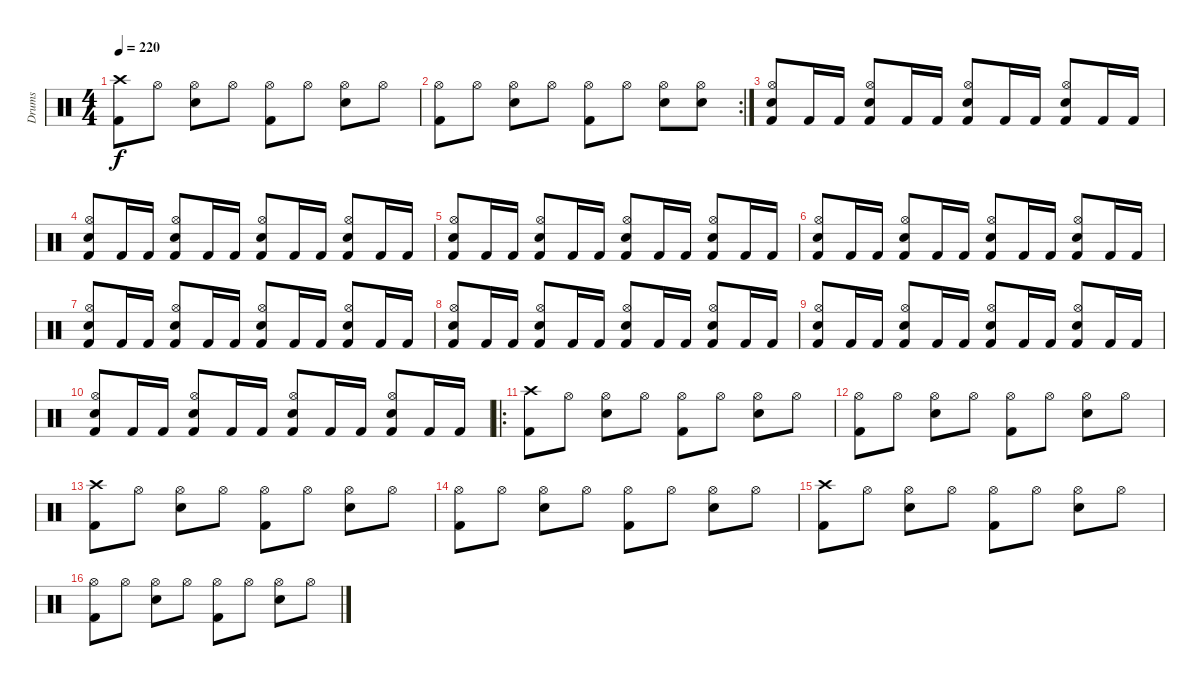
\track ("Drums" "Drums") {instrument percussion}
\staff {score}
\articulation defaults
\ts (4 4)
\tempo 220
\clef neutral
\ks c
("Crash high (hit)" "Kick (hit) 2").8{dy f} "Hi-Hat (open)".8 ("Hi-Hat (open)" "Snare (hit) 2").8 "Hi-Hat (open)".8 ("Hi-Hat (open)" "Kick (hit) 2").8 "Hi-Hat (open)".8 ("Hi-Hat (open)" "Snare (hit) 2").8 "Hi-Hat (open)".8 |
\rc 2
("Hi-Hat (open)" "Kick (hit) 2").8 "Hi-Hat (open)".8 ("Hi-Hat (open)" "Snare (hit) 2").8 "Hi-Hat (open)".8 ("Hi-Hat (open)" "Kick (hit) 2").8 "Hi-Hat (open)".8 ("Hi-Hat (open)" "Snare (hit) 2").8 ("Hi-Hat (open)" "Snare (hit) 2").8 |
("Hi-Hat (open)" "Snare (hit) 2" "Kick (hit) 2").8 "Kick (hit) 2".16 "Kick (hit) 2".16 ("Hi-Hat (open)" "Snare (hit) 2" "Kick (hit) 2").8 "Kick (hit) 2".16 "Kick (hit) 2".16 ("Hi-Hat (open)" "Snare (hit) 2" "Kick (hit) 2").8 "Kick (hit) 2".16 "Kick (hit) 2".16 ("Hi-Hat (open)" "Snare (hit) 2" "Kick (hit) 2").8 "Kick (hit) 2".16 "Kick (hit) 2".16 |
("Hi-Hat (open)" "Snare (hit) 2" "Kick (hit) 2").8 "Kick (hit) 2".16 "Kick (hit) 2".16 ("Hi-Hat (open)" "Snare (hit) 2" "Kick (hit) 2").8 "Kick (hit) 2".16 "Kick (hit) 2".16 ("Hi-Hat (open)" "Snare (hit) 2" "Kick (hit) 2").8 "Kick (hit) 2".16 "Kick (hit) 2".16 ("Hi-Hat (open)" "Snare (hit) 2" "Kick (hit) 2").8 "Kick (hit) 2".16 "Kick (hit) 2".16 |
("Hi-Hat (open)" "Snare (hit) 2" "Kick (hit) 2").8 "Kick (hit) 2".16 "Kick (hit) 2".16 ("Hi-Hat (open)" "Snare (hit) 2" "Kick (hit) 2").8 "Kick (hit) 2".16 "Kick (hit) 2".16 ("Hi-Hat (open)" "Snare (hit) 2" "Kick (hit) 2").8 "Kick (hit) 2".16 "Kick (hit) 2".16 ("Hi-Hat (open)" "Snare (hit) 2" "Kick (hit) 2").8 "Kick (hit) 2".16 "Kick (hit) 2".16 |
("Hi-Hat (open)" "Snare (hit) 2" "Kick (hit) 2").8 "Kick (hit) 2".16 "Kick (hit) 2".16 ("Hi-Hat (open)" "Snare (hit) 2" "Kick (hit) 2").8 "Kick (hit) 2".16 "Kick (hit) 2".16 ("Hi-Hat (open)" "Snare (hit) 2" "Kick (hit) 2").8 "Kick (hit) 2".16 "Kick (hit) 2".16 ("Hi-Hat (open)" "Snare (hit) 2" "Kick (hit) 2").8 "Kick (hit) 2".16 "Kick (hit) 2".16 |
("Hi-Hat (open)" "Snare (hit) 2" "Kick (hit) 2").8 "Kick (hit) 2".16 "Kick (hit) 2".16 ("Hi-Hat (open)" "Snare (hit) 2" "Kick (hit) 2").8 "Kick (hit) 2".16 "Kick (hit) 2".16 ("Hi-Hat (open)" "Snare (hit) 2" "Kick (hit) 2").8 "Kick (hit) 2".16 "Kick (hit) 2".16 ("Hi-Hat (open)" "Snare (hit) 2" "Kick (hit) 2").8 "Kick (hit) 2".16 "Kick (hit) 2".16 |
("Hi-Hat (open)" "Snare (hit) 2" "Kick (hit) 2").8 "Kick (hit) 2".16 "Kick (hit) 2".16 ("Hi-Hat (open)" "Snare (hit) 2" "Kick (hit) 2").8 "Kick (hit) 2".16 "Kick (hit) 2".16 ("Hi-Hat (open)" "Snare (hit) 2" "Kick (hit) 2").8 "Kick (hit) 2".16 "Kick (hit) 2".16 ("Hi-Hat (open)" "Snare (hit) 2" "Kick (hit) 2").8 "Kick (hit) 2".16 "Kick (hit) 2".16 |
("Hi-Hat (open)" "Snare (hit) 2" "Kick (hit) 2").8 "Kick (hit) 2".16 "Kick (hit) 2".16 ("Hi-Hat (open)" "Snare (hit) 2" "Kick (hit) 2").8 "Kick (hit) 2".16 "Kick (hit) 2".16 ("Hi-Hat (open)" "Snare (hit) 2" "Kick (hit) 2").8 "Kick (hit) 2".16 "Kick (hit) 2".16 ("Hi-Hat (open)" "Snare (hit) 2" "Kick (hit) 2").8 "Kick (hit) 2".16 "Kick (hit) 2".16 |
("Hi-Hat (open)" "Snare (hit) 2" "Kick (hit) 2").8 "Kick (hit) 2".16 "Kick (hit) 2".16 ("Hi-Hat (open)" "Snare (hit) 2" "Kick (hit) 2").8 "Kick (hit) 2".16 "Kick (hit) 2".16 ("Hi-Hat (open)" "Snare (hit) 2" "Kick (hit) 2").8 "Kick (hit) 2".16 "Kick (hit) 2".16 ("Hi-Hat (open)" "Snare (hit) 2" "Kick (hit) 2").8 "Kick (hit) 2".16 "Kick (hit) 2".16 |
\ro
("Crash high (hit)" "Kick (hit) 2").8 "Hi-Hat (open)".8 ("Hi-Hat (open)" "Snare (hit) 2").8 "Hi-Hat (open)".8 ("Hi-Hat (open)" "Kick (hit) 2").8 "Hi-Hat (open)".8 ("Hi-Hat (open)" "Snare (hit) 2").8 "Hi-Hat (open)".8 |
("Hi-Hat (open)" "Kick (hit) 2").8 "Hi-Hat (open)".8 ("Hi-Hat (open)" "Snare (hit) 2").8 "Hi-Hat (open)".8 ("Hi-Hat (open)" "Kick (hit) 2").8 "Hi-Hat (open)".8 ("Hi-Hat (open)" "Snare (hit) 2").8 "Hi-Hat (open)".8 |
("Crash high (hit)" "Kick (hit) 2").8 "Hi-Hat (open)".8 ("Hi-Hat (open)" "Snare (hit) 2").8 "Hi-Hat (open)".8 ("Hi-Hat (open)" "Kick (hit) 2").8 "Hi-Hat (open)".8 ("Hi-Hat (open)" "Snare (hit) 2").8 "Hi-Hat (open)".8 |
("Hi-Hat (open)" "Kick (hit) 2").8 "Hi-Hat (open)".8 ("Hi-Hat (open)" "Snare (hit) 2").8 "Hi-Hat (open)".8 ("Hi-Hat (open)" "Kick (hit) 2").8 "Hi-Hat (open)".8 ("Hi-Hat (open)" "Snare (hit) 2").8 "Hi-Hat (open)".8 |
("Crash high (hit)" "Kick (hit) 2").8 "Hi-Hat (open)".8 ("Hi-Hat (open)" "Snare (hit) 2").8 "Hi-Hat (open)".8 ("Hi-Hat (open)" "Kick (hit) 2").8 "Hi-Hat (open)".8 ("Hi-Hat (open)" "Snare (hit) 2").8 "Hi-Hat (open)".8 |
("Hi-Hat (open)" "Kick (hit) 2").8 "Hi-Hat (open)".8 ("Hi-Hat (open)" "Snare (hit) 2").8 "Hi-Hat (open)".8 ("Hi-Hat (open)" "Kick (hit) 2").8 "Hi-Hat (open)".8 ("Hi-Hat (open)" "Snare (hit) 2").8 "Hi-Hat (open)".8
